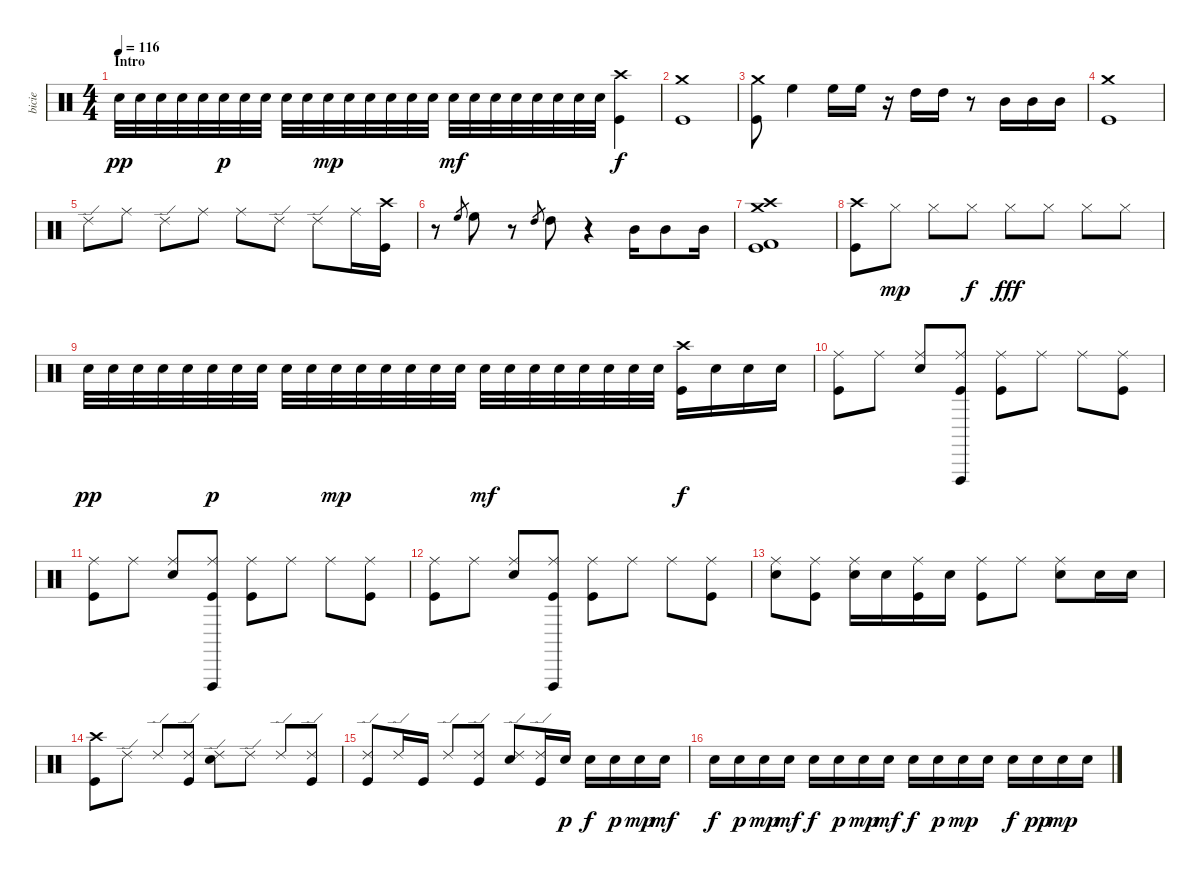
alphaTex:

\track ("bicie" "bicie") {instrument percussion}
\staff {score}
\articulation defaults
\ts (4 4)
\section ("" "Intro")
\tempo 116
\clef neutral
\ks c "Electric Snare (hit)".32{dy pp} "Electric Snare (hit)".32 "Electric Snare (hit)".32 "Electric Snare (hit)".32 "Electric Snare (hit)".32 "Electric Snare (hit)".32{dy p} "Electric Snare (hit)".32 "Electric Snare (hit)".32 "Electric Snare (hit)".32 "Electric Snare (hit)".32 "Electric Snare (hit)".32{dy mp} "Electric Snare (hit)".32 "Electric Snare (hit)".32 "Electric Snare (hit)".32 "Electric Snare (hit)".32 "Electric Snare (hit)".32 "Electric Snare (hit)".32{dy mf} "Electric Snare (hit)".32 "Electric Snare (hit)".32 "Electric Snare (hit)".32 "Electric Snare (hit)".32 "Electric Snare (hit)".32 "Electric Snare (hit)".32 "Electric Snare (hit)".32
("Crash high (hit)" "Kick (hit)").4{dy f} |
("Crash medium (hit)" "Kick (hit)").1 |
("Crash medium (hit)" "Kick (hit)").8 "High Floor Tom (hit)".4 "High Floor Tom (hit)".16 "High Floor Tom (hit)".16 r.16 "High Tom (hit)".16 "High Tom (hit)".16 r.8 "Mid Tom (hit)".16 "Mid Tom (hit)".16 "Mid Tom (hit)".16 |
("Crash medium (hit)" "Kick (hit)").1 |
"Ride (edge) 2".8 "Ride (middle)".8 "Ride (edge) 2".8 "Ride (middle)".8 "Ride (middle)".8 "Ride (edge) 2".8 "Ride (edge) 2".8 "Ride (middle)".16 ("Crash high (hit)" "Kick (hit)").16 |
r.8 "High Floor Tom (hit)".8{gr} "High Floor Tom (hit)".8 r.8 "High Tom (hit)".8{gr} "High Tom (hit)".8 r.4 "Mid Tom (hit)".16 "Mid Tom (hit)".8 "Mid Tom (hit)".16 |
("Crash high (hit)" "Crash medium (hit)" "Kick (hit) 2" "Kick (hit)").1 |
("Crash high (hit)" "Kick (hit)").8 "Hi-Hat (closed)".8{dy mp} "Hi-Hat (closed)".8 "Hi-Hat (closed)".8{dy f} "Hi-Hat (closed)".8{dy fff} "Hi-Hat (closed)".8 "Hi-Hat (closed)".8 "Hi-Hat (closed)".8 |
"Electric Snare (hit)".32{dy pp} "Electric Snare (hit)".32 "Electric Snare (hit)".32 "Electric Snare (hit)".32 "Electric Snare (hit)".32 "Electric Snare (hit)".32{dy p} "Electric Snare (hit)".32 "Electric Snare (hit)".32 "Electric Snare (hit)".32 "Electric Snare (hit)".32 "Electric Snare (hit)".32{dy mp} "Electric Snare (hit)".32 "Electric Snare (hit)".32 "Electric Snare (hit)".32 "Electric Snare (hit)".32 "Electric Snare (hit)".32 "Electric Snare (hit)".32{dy mf} "Electric Snare (hit)".32 "Electric Snare (hit)".32 "Electric Snare (hit)".32 "Electric Snare (hit)".32 "Electric Snare (hit)".32 "Electric Snare (hit)".32 "Electric Snare (hit)".32 ("Crash high (hit)" "Kick (hit)").16{dy f} "Electric Snare (hit)".16 "Electric Snare (hit)".16 "Electric Snare (hit)".16 |
("Ride (middle)" "Kick (hit)").8 "Ride (middle)".8 ("Ride (middle)" "Electric Snare (hit)").8 ("Ride (middle)" "Vibraslap (hit)" "Kick (hit)").8 ("Ride (middle)" "Kick (hit)").8 "Ride (middle)".8 "Ride (middle)".8 ("Ride (middle)" "Kick (hit)").8 |
("Ride (middle)" "Kick (hit)").8 "Ride (middle)".8 ("Ride (middle)" "Electric Snare (hit)").8 ("Ride (middle)" "Vibraslap (hit)" "Kick (hit)").8 ("Ride (middle)" "Kick (hit)").8 "Ride (middle)".8 "Ride (middle)".8 ("Ride (middle)" "Kick (hit)").8 |
("Ride (middle)" "Kick (hit)").8 "Ride (middle)".8 ("Ride (middle)" "Electric Snare (hit)").8 ("Ride (middle)" "Vibraslap (hit)" "Kick (hit)").8 ("Ride (middle)" "Kick (hit)").8 "Ride (middle)".8 "Ride (middle)".8 ("Ride (middle)" "Kick (hit)").8 |
("Ride (middle)" "Electric Snare (hit)").8 ("Ride (middle)" "Kick (hit)").8 ("Ride (middle)" "Electric Snare (hit)").16 "Electric Snare (hit)".16 ("Ride (middle)" "Kick (hit)").16 "Electric Snare (hit)".16 ("Ride (middle)" "Kick (hit)").8 "Ride (middle)".8 ("Ride (middle)" "Electric Snare (hit)").8 "Electric Snare (hit)".16 "Electric Snare (hit)".16 |
("Crash high (hit)" "Kick (hit)").8 "Ride (edge) 2".8 "Ride (edge) 2".8 ("Ride (edge) 2" "Kick (hit)").8 ("Ride (edge) 2" "Electric Snare (hit)").8 "Ride (edge) 2".8 "Ride (edge) 2".8 ("Ride (edge) 2" "Kick (hit)").8 |
("Ride (edge) 2" "Kick (hit)").8 "Ride (edge) 2".16 "Kick (hit)".16 "Ride (edge) 2".8 ("Ride (edge) 2" "Kick (hit)").8 ("Ride (edge) 2" "Electric Snare (hit)").8 ("Ride (edge) 2" "Kick (hit)").16 "Electric Snare (hit)".16{dy p} "Electric Snare (hit)".16{dy f} "Electric Snare (hit)".16{dy p} "Electric Snare (hit)".16{dy mp} "Electric Snare (hit)".16{dy mf} |
"Electric Snare (hit)".16{dy f} "Electric Snare (hit)".16{dy p} "Electric Snare (hit)".16{dy mp} "Electric Snare (hit)".16{dy mf} "Electric Snare (hit)".16{dy f} "Electric Snare (hit)".16{dy p} "Electric Snare (hit)".16{dy mp} "Electric Snare (hit)".16{dy mf} "Electric Snare (hit)".16{dy f} "Electric Snare (hit)".16{dy p} "Electric Snare (hit)".16{dy mp} "Electric Snare (hit)".16 "Electric Snare (hit)".16{dy f} "Electric Snare (hit)".16{dy pp} "Electric Snare (hit)".16{dy mp} "Electric Snare (hit)".16
